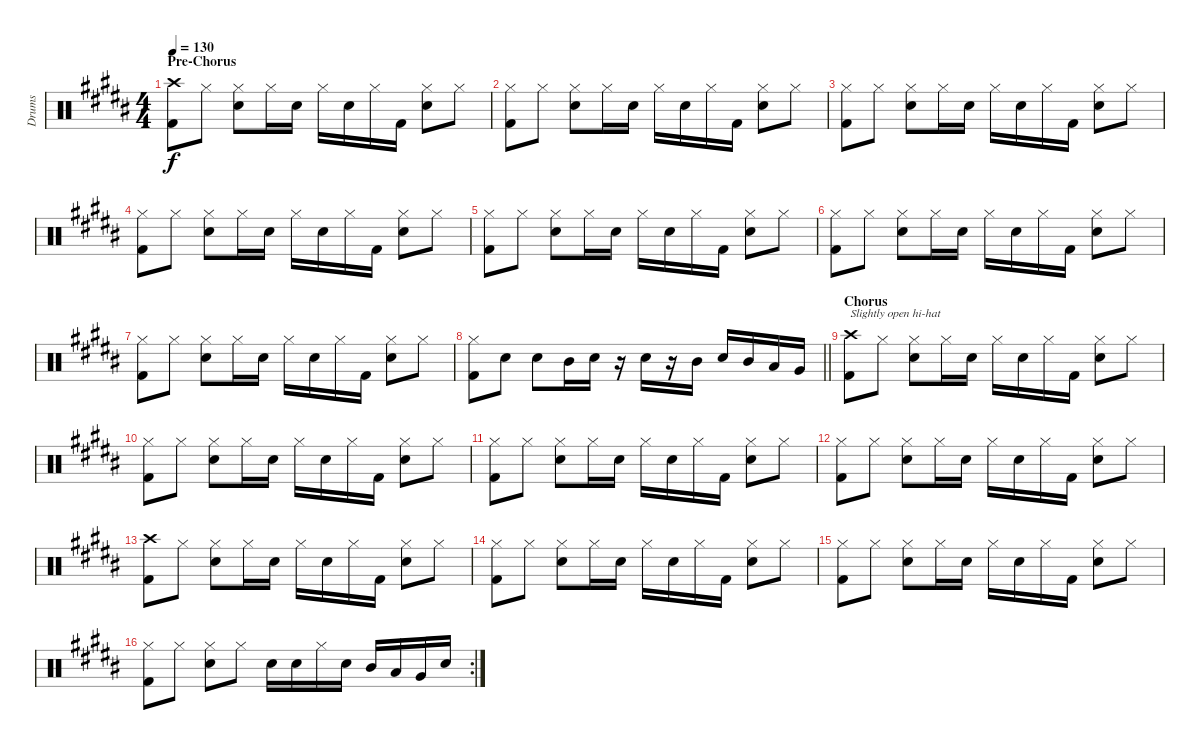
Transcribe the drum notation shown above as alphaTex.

\track ("Drums" "Drums") {instrument percussion}
\staff {score}
\articulation defaults
\ts (4 4)
\section ("" "Pre-Chorus")
\tempo 130
\clef neutral
\ks b
("Kick (hit) 2" "Crash high (hit)").8{dy f} "Hi-Hat (closed)".8 ("Snare (hit) 2" "Hi-Hat (closed)").8 "Hi-Hat (closed)".16 "Snare (hit) 2".16 "Hi-Hat (closed)".16 "Snare (hit) 2".16 "Hi-Hat (closed)".16 "Kick (hit) 2".16 ("Snare (hit) 2" "Hi-Hat (closed)").8 "Hi-Hat (closed)".8 |
("Kick (hit) 2" "Hi-Hat (closed)").8 "Hi-Hat (closed)".8 ("Snare (hit) 2" "Hi-Hat (closed)").8 "Hi-Hat (closed)".16 "Snare (hit) 2".16 "Hi-Hat (closed)".16 "Snare (hit) 2".16 "Hi-Hat (closed)".16 "Kick (hit) 2".16 ("Snare (hit) 2" "Hi-Hat (closed)").8 "Hi-Hat (closed)".8 |
("Kick (hit) 2" "Hi-Hat (closed)").8 "Hi-Hat (closed)".8 ("Snare (hit) 2" "Hi-Hat (closed)").8 "Hi-Hat (closed)".16 "Snare (hit) 2".16 "Hi-Hat (closed)".16 "Snare (hit) 2".16 "Hi-Hat (closed)".16 "Kick (hit) 2".16 ("Snare (hit) 2" "Hi-Hat (closed)").8 "Hi-Hat (closed)".8 |
("Kick (hit) 2" "Hi-Hat (closed)").8 "Hi-Hat (closed)".8 ("Snare (hit) 2" "Hi-Hat (closed)").8 "Hi-Hat (closed)".16 "Snare (hit) 2".16 "Hi-Hat (closed)".16 "Snare (hit) 2".16 "Hi-Hat (closed)".16 "Kick (hit) 2".16 ("Snare (hit) 2" "Hi-Hat (closed)").8 "Hi-Hat (closed)".8 |
("Kick (hit) 2" "Hi-Hat (closed)").8 "Hi-Hat (closed)".8 ("Snare (hit) 2" "Hi-Hat (closed)").8 "Hi-Hat (closed)".16 "Snare (hit) 2".16 "Hi-Hat (closed)".16 "Snare (hit) 2".16 "Hi-Hat (closed)".16 "Kick (hit) 2".16 ("Snare (hit) 2" "Hi-Hat (closed)").8 "Hi-Hat (closed)".8 |
("Kick (hit) 2" "Hi-Hat (closed)").8 "Hi-Hat (closed)".8 ("Snare (hit) 2" "Hi-Hat (closed)").8 "Hi-Hat (closed)".16 "Snare (hit) 2".16 "Hi-Hat (closed)".16 "Snare (hit) 2".16 "Hi-Hat (closed)".16 "Kick (hit) 2".16 ("Snare (hit) 2" "Hi-Hat (closed)").8 "Hi-Hat (closed)".8 |
("Kick (hit) 2" "Hi-Hat (closed)").8 "Hi-Hat (closed)".8 ("Snare (hit) 2" "Hi-Hat (closed)").8 "Hi-Hat (closed)".16 "Snare (hit) 2".16 "Hi-Hat (closed)".16 "Snare (hit) 2".16 "Hi-Hat (closed)".16 "Kick (hit) 2".16 ("Snare (hit) 2" "Hi-Hat (closed)").8 "Hi-Hat (closed)".8 |
\barLineRight lightlight
("Kick (hit) 2" "Hi-Hat (closed)").8 "Snare (hit) 2".8 "Snare (hit) 2".8 "Mid Tom (hit)".16 "Snare (hit) 2".16 r.16 "Snare (hit) 2".16 r.16 "Mid Tom (hit)".16 "Snare (hit) 2".16 "Mid Tom (hit)".16 "Low Tom (hit)".16 "Very Low Tom (hit)".16 |
\section ("" "Chorus")
("Kick (hit) 2" "Crash high (hit)").8{txt "Slightly open hi-hat"} "Hi-Hat (closed)".8 ("Snare (hit) 2" "Hi-Hat (closed)").8 "Hi-Hat (closed)".16 "Snare (hit) 2".16 "Hi-Hat (closed)".16 "Snare (hit) 2".16 "Hi-Hat (closed)".16 "Kick (hit) 2".16 ("Snare (hit) 2" "Hi-Hat (closed)").8 "Hi-Hat (closed)".8 |
("Kick (hit) 2" "Hi-Hat (closed)").8 "Hi-Hat (closed)".8 ("Snare (hit) 2" "Hi-Hat (closed)").8 "Hi-Hat (closed)".16 "Snare (hit) 2".16 "Hi-Hat (closed)".16 "Snare (hit) 2".16 "Hi-Hat (closed)".16 "Kick (hit) 2".16 ("Snare (hit) 2" "Hi-Hat (closed)").8 "Hi-Hat (closed)".8 |
("Kick (hit) 2" "Hi-Hat (closed)").8 "Hi-Hat (closed)".8 ("Snare (hit) 2" "Hi-Hat (closed)").8 "Hi-Hat (closed)".16 "Snare (hit) 2".16 "Hi-Hat (closed)".16 "Snare (hit) 2".16 "Hi-Hat (closed)".16 "Kick (hit) 2".16 ("Snare (hit) 2" "Hi-Hat (closed)").8 "Hi-Hat (closed)".8 |
("Kick (hit) 2" "Hi-Hat (closed)").8 "Hi-Hat (closed)".8 ("Snare (hit) 2" "Hi-Hat (closed)").8 "Hi-Hat (closed)".16 "Snare (hit) 2".16 "Hi-Hat (closed)".16 "Snare (hit) 2".16 "Hi-Hat (closed)".16 "Kick (hit) 2".16 ("Snare (hit) 2" "Hi-Hat (closed)").8 "Hi-Hat (closed)".8 |
("Kick (hit) 2" "Crash high (hit)").8 "Hi-Hat (closed)".8 ("Snare (hit) 2" "Hi-Hat (closed)").8 "Hi-Hat (closed)".16 "Snare (hit) 2".16 "Hi-Hat (closed)".16 "Snare (hit) 2".16 "Hi-Hat (closed)".16 "Kick (hit) 2".16 ("Snare (hit) 2" "Hi-Hat (closed)").8 "Hi-Hat (closed)".8 |
("Kick (hit) 2" "Hi-Hat (closed)").8 "Hi-Hat (closed)".8 ("Snare (hit) 2" "Hi-Hat (closed)").8 "Hi-Hat (closed)".16 "Snare (hit) 2".16 "Hi-Hat (closed)".16 "Snare (hit) 2".16 "Hi-Hat (closed)".16 "Kick (hit) 2".16 ("Snare (hit) 2" "Hi-Hat (closed)").8 "Hi-Hat (closed)".8 |
("Kick (hit) 2" "Hi-Hat (closed)").8 "Hi-Hat (closed)".8 ("Snare (hit) 2" "Hi-Hat (closed)").8 "Hi-Hat (closed)".16 "Snare (hit) 2".16 "Hi-Hat (closed)".16 "Snare (hit) 2".16 "Hi-Hat (closed)".16 "Kick (hit) 2".16 ("Snare (hit) 2" "Hi-Hat (closed)").8 "Hi-Hat (closed)".8 |
\rc 2
("Kick (hit) 2" "Hi-Hat (closed)").8 "Hi-Hat (closed)".8 ("Snare (hit) 2" "Hi-Hat (closed)").8 "Hi-Hat (closed)".8 "Snare (hit) 2".16 "Snare (hit) 2".16 "Hi-Hat (closed)".16 "Snare (hit) 2".16 "Mid Tom (hit)".16 "Low Tom (hit)".16 "Very Low Tom (hit)".16 "Snare (hit) 2".16
